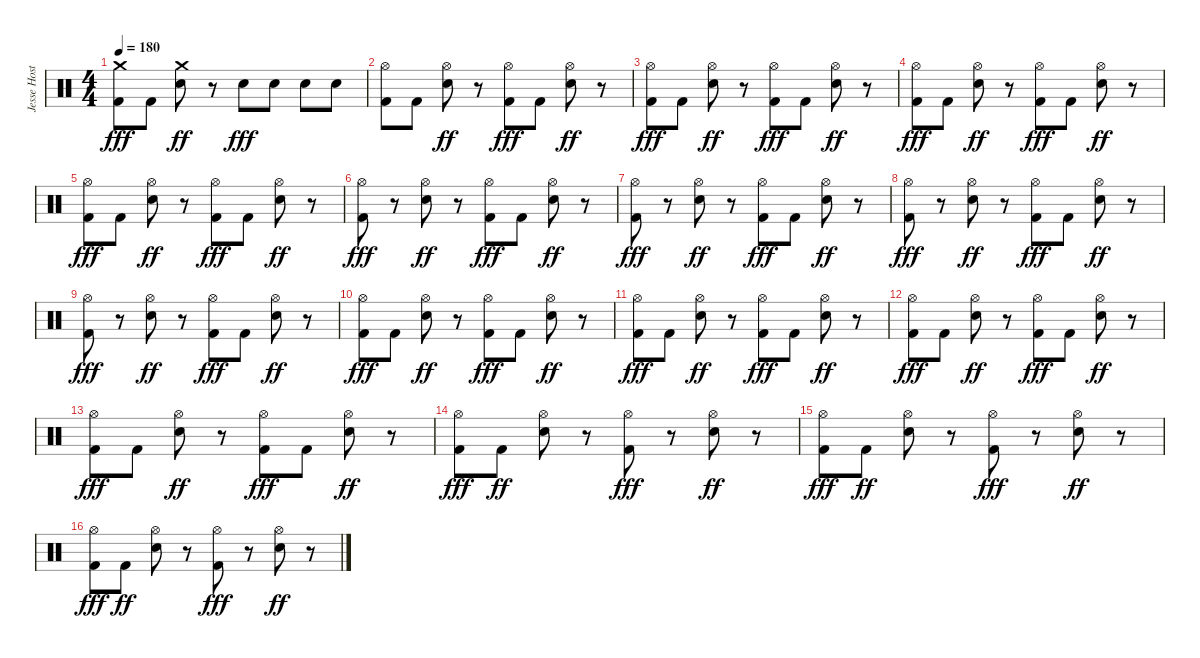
\track ("Jesse Hostetler" "Jesse Host") {instrument percussion}
\staff {score}
\articulation defaults
\ts (4 4)
\tempo 180
\clef neutral
\ks c
("Crash medium (hit)" "Kick (hit) 2").8{dy fff} "Kick (hit) 2".8 ("Crash medium (hit)" "Electric Snare (hit)").8{dy ff} r.8 "Electric Snare (hit)".8{dy fff} "Electric Snare (hit)".8 "Electric Snare (hit)".8 "Electric Snare (hit)".8 |
("Hi-Hat (open)" "Kick (hit) 2").8 "Kick (hit) 2".8 ("Hi-Hat (open)" "Electric Snare (hit)").8{dy ff} r.8 ("Hi-Hat (open)" "Kick (hit) 2").8{dy fff} "Kick (hit) 2".8 ("Hi-Hat (open)" "Electric Snare (hit)").8{dy ff} r.8 |
("Hi-Hat (open)" "Kick (hit) 2").8{dy fff} "Kick (hit) 2".8 ("Hi-Hat (open)" "Electric Snare (hit)").8{dy ff} r.8 ("Hi-Hat (open)" "Kick (hit) 2").8{dy fff} "Kick (hit) 2".8 ("Hi-Hat (open)" "Electric Snare (hit)").8{dy ff} r.8 |
("Hi-Hat (open)" "Kick (hit) 2").8{dy fff} "Kick (hit) 2".8 ("Hi-Hat (open)" "Electric Snare (hit)").8{dy ff} r.8 ("Hi-Hat (open)" "Kick (hit) 2").8{dy fff} "Kick (hit) 2".8 ("Hi-Hat (open)" "Electric Snare (hit)").8{dy ff} r.8 |
("Hi-Hat (open)" "Kick (hit) 2").8{dy fff} "Kick (hit) 2".8 ("Hi-Hat (open)" "Electric Snare (hit)").8{dy ff} r.8 ("Hi-Hat (open)" "Kick (hit) 2").8{dy fff} "Kick (hit) 2".8 ("Hi-Hat (open)" "Electric Snare (hit)").8{dy ff} r.8 |
("Hi-Hat (open)" "Kick (hit) 2").8{dy fff} r.8 ("Hi-Hat (open)" "Electric Snare (hit)").8{dy ff} r.8 ("Hi-Hat (open)" "Kick (hit) 2").8{dy fff} "Kick (hit) 2".8 ("Hi-Hat (open)" "Electric Snare (hit)").8{dy ff} r.8 |
("Hi-Hat (open)" "Kick (hit) 2").8{dy fff} r.8 ("Hi-Hat (open)" "Electric Snare (hit)").8{dy ff} r.8 ("Hi-Hat (open)" "Kick (hit) 2").8{dy fff} "Kick (hit) 2".8 ("Hi-Hat (open)" "Electric Snare (hit)").8{dy ff} r.8 |
("Hi-Hat (open)" "Kick (hit) 2").8{dy fff} r.8 ("Hi-Hat (open)" "Electric Snare (hit)").8{dy ff} r.8 ("Hi-Hat (open)" "Kick (hit) 2").8{dy fff} "Kick (hit) 2".8 ("Hi-Hat (open)" "Electric Snare (hit)").8{dy ff} r.8 |
("Hi-Hat (open)" "Kick (hit) 2").8{dy fff} r.8 ("Hi-Hat (open)" "Electric Snare (hit)").8{dy ff} r.8 ("Hi-Hat (open)" "Kick (hit) 2").8{dy fff} "Kick (hit) 2".8 ("Hi-Hat (open)" "Electric Snare (hit)").8{dy ff} r.8 |
("Hi-Hat (open)" "Kick (hit) 2").8{dy fff} "Kick (hit) 2".8 ("Hi-Hat (open)" "Electric Snare (hit)").8{dy ff} r.8 ("Hi-Hat (open)" "Kick (hit) 2").8{dy fff} "Kick (hit) 2".8 ("Hi-Hat (open)" "Electric Snare (hit)").8{dy ff} r.8 |
("Hi-Hat (open)" "Kick (hit) 2").8{dy fff} "Kick (hit) 2".8 ("Hi-Hat (open)" "Electric Snare (hit)").8{dy ff} r.8 ("Hi-Hat (open)" "Kick (hit) 2").8{dy fff} "Kick (hit) 2".8 ("Hi-Hat (open)" "Electric Snare (hit)").8{dy ff} r.8 |
("Hi-Hat (open)" "Kick (hit) 2").8{dy fff} "Kick (hit) 2".8 ("Hi-Hat (open)" "Electric Snare (hit)").8{dy ff} r.8 ("Hi-Hat (open)" "Kick (hit) 2").8{dy fff} "Kick (hit) 2".8 ("Hi-Hat (open)" "Electric Snare (hit)").8{dy ff} r.8 |
("Hi-Hat (open)" "Kick (hit) 2").8{dy fff} "Kick (hit) 2".8 ("Hi-Hat (open)" "Electric Snare (hit)").8{dy ff} r.8 ("Hi-Hat (open)" "Kick (hit) 2").8{dy fff} "Kick (hit) 2".8 ("Hi-Hat (open)" "Electric Snare (hit)").8{dy ff} r.8 |
("Hi-Hat (open)" "Kick (hit) 2").8{dy fff} "Kick (hit) 2".8{dy ff} ("Hi-Hat (open)" "Electric Snare (hit)").8 r.8 ("Hi-Hat (open)" "Kick (hit) 2").8{dy fff} r.8 ("Hi-Hat (open)" "Electric Snare (hit)").8{dy ff} r.8 |
("Hi-Hat (open)" "Kick (hit) 2").8{dy fff} "Kick (hit) 2".8{dy ff} ("Hi-Hat (open)" "Electric Snare (hit)").8 r.8 ("Hi-Hat (open)" "Kick (hit) 2").8{dy fff} r.8 ("Hi-Hat (open)" "Electric Snare (hit)").8{dy ff} r.8 |
("Hi-Hat (open)" "Kick (hit) 2").8{dy fff} "Kick (hit) 2".8{dy ff} ("Hi-Hat (open)" "Electric Snare (hit)").8 r.8 ("Hi-Hat (open)" "Kick (hit) 2").8{dy fff} r.8 ("Hi-Hat (open)" "Electric Snare (hit)").8{dy ff} r.8
